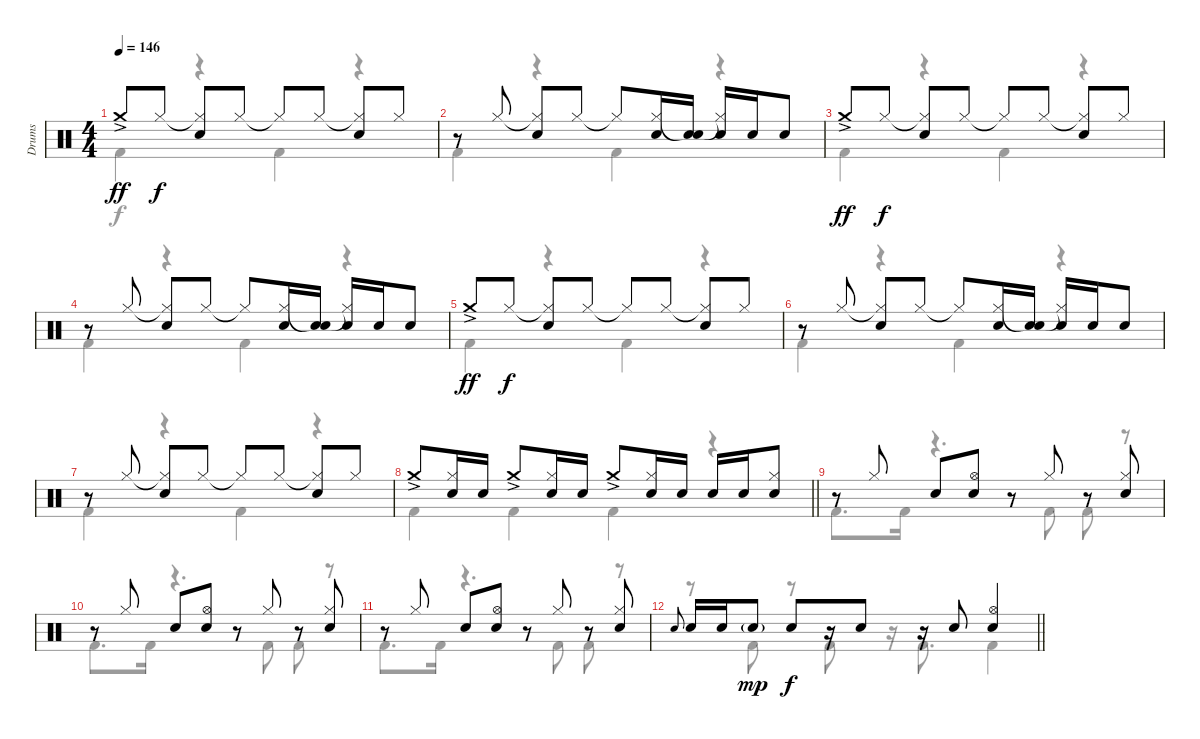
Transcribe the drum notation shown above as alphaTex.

\track ("Drums" "Drums") {instrument percussion}
\staff {score}
\articulation defaults
\voice
\ts (4 4)
\tempo 146
\clef neutral
\ks c "Crash medium (hit)"{ac}.8{dy ff} "Hi-Hat (closed)".8{dy f}
("Hi-Hat (closed)"{t} "Snare (hit) 2").8 "Hi-Hat (closed)".8 "Hi-Hat (closed)"{t}.8 "Hi-Hat (closed)".8 ("Hi-Hat (closed)"{t} "Snare (hit) 2").8 "Hi-Hat (closed)".8 |
r.8 "Hi-Hat (closed)".8 ("Hi-Hat (closed)"{t} "Snare (hit) 2").8 "Hi-Hat (closed)".8 "Hi-Hat (closed)"{t}.8 ("Hi-Hat (closed)" "Snare (hit) 2").16 ("Snare (hit)"{t} "Snare (hit) 2").16 ("Hi-Hat (closed)"{t} "Snare (hit) 2").16 "Snare (hit) 2".16 "Snare (hit) 2".8 |
"Crash medium (hit)"{ac}.8{dy ff} "Hi-Hat (closed)".8{dy f} ("Hi-Hat (closed)"{t} "Snare (hit) 2").8 "Hi-Hat (closed)".8 "Hi-Hat (closed)"{t}.8 "Hi-Hat (closed)".8 ("Hi-Hat (closed)"{t} "Snare (hit) 2").8 "Hi-Hat (closed)".8 |
r.8 "Hi-Hat (closed)".8 ("Hi-Hat (closed)"{t} "Snare (hit) 2").8 "Hi-Hat (closed)".8 "Hi-Hat (closed)"{t}.8 ("Hi-Hat (closed)" "Snare (hit) 2").16 ("Snare (hit)"{t} "Snare (hit) 2").16 ("Hi-Hat (closed)"{t} "Snare (hit) 2").16 "Snare (hit) 2".16 "Snare (hit) 2".8 |
"Crash medium (hit)"{ac}.8{dy ff} "Hi-Hat (closed)".8{dy f} ("Hi-Hat (closed)"{t} "Snare (hit) 2").8 "Hi-Hat (closed)".8 "Hi-Hat (closed)"{t}.8 "Hi-Hat (closed)".8 ("Hi-Hat (closed)"{t} "Snare (hit) 2").8 "Hi-Hat (closed)".8 |
r.8 "Hi-Hat (closed)".8 ("Hi-Hat (closed)"{t} "Snare (hit) 2").8 "Hi-Hat (closed)".8 "Hi-Hat (closed)"{t}.8 ("Hi-Hat (closed)" "Snare (hit) 2").16 ("Snare (hit)"{t} "Snare (hit) 2").16 ("Hi-Hat (closed)"{t} "Snare (hit) 2").16 "Snare (hit) 2".16 "Snare (hit) 2".8 |
r.8 "Hi-Hat (closed)".8 ("Hi-Hat (closed)"{t} "Snare (hit) 2").8 "Hi-Hat (closed)".8 "Hi-Hat (closed)"{t}.8 "Hi-Hat (closed)".8 ("Hi-Hat (closed)"{t} "Snare (hit) 2").8 "Hi-Hat (closed)".8 |
\barLineRight lightlight "Crash medium (hit)"{ac}.8
("Hi-Hat (closed)" "Snare (hit) 2").16 "Snare (hit) 2".16 "Crash medium (hit)"{ac}.8 ("Hi-Hat (closed)" "Snare (hit) 2").16 "Snare (hit) 2".16 "Crash medium (hit)"{ac}.8 ("Hi-Hat (closed)" "Snare (hit) 2").16 "Snare (hit) 2".16 "Snare (hit) 2".16 "Snare (hit) 2".16 ("Hi-Hat (closed)" "Snare (hit) 2").8 |
r.8 "Hi-Hat (closed)".8 "Snare (hit) 2".8 ("Hi-Hat (open)" "Electric Snare (hit)").8 r.8 "Hi-Hat (closed)".8 r.8 ("Hi-Hat (closed)" "Snare (hit) 2").8 |
r.8 "Hi-Hat (closed)".8 "Snare (hit) 2".8 ("Hi-Hat (open)" "Electric Snare (hit)").8 r.8 "Hi-Hat (closed)".8 r.8 ("Hi-Hat (closed)" "Snare (hit) 2").8 |
r.8 "Hi-Hat (closed)".8 "Snare (hit) 2".8 ("Hi-Hat (open)" "Electric Snare (hit)").8 r.8 "Hi-Hat (closed)".8 r.8 ("Hi-Hat (closed)" "Snare (hit) 2").8 |
\barLineRight lightlight "Snare (hit) 2".8{gr onbeat} "Snare (hit) 2".16 "Snare (hit) 2".16 "Snare (hit) 2"{g}.8{dy mp} "Snare (hit) 2".8{dy f}
r.16 "Snare (hit) 2".8 r.16 "Snare (hit) 2".8 ("Hi-Hat (open)" "Electric Snare (hit)").4
\voice
\clef neutral
\ottava regular
\simile none
\ks c "Kick (hit) 2".4{dy f}
r.4 "Kick (hit) 2".4 r.4 |
"Kick (hit) 2".4 r.4 "Kick (hit) 2".4 r.4 |
"Kick (hit) 2".4 r.4 "Kick (hit) 2".4 r.4 |
"Kick (hit) 2".4 r.4 "Kick (hit) 2".4 r.4 |
"Kick (hit) 2".4 r.4 "Kick (hit) 2".4 r.4 |
"Kick (hit) 2".4 r.4 "Kick (hit) 2".4 r.4 |
"Kick (hit) 2".4 r.4 "Kick (hit) 2".4 r.4 |
\barLineRight lightlight "Kick (hit) 2".4 "Kick (hit) 2".4 "Kick (hit) 2".4
r.4 |
"Kick (hit) 2".8{d} "Kick (hit) 2".16 r.4{d} "Kick (hit) 2".8 "Kick (hit) 2".8 r.8 |
"Kick (hit) 2".8{d} "Kick (hit) 2".16 r.4{d} "Kick (hit) 2".8 "Kick (hit) 2".8 r.8 |
"Kick (hit) 2".8{d} "Kick (hit) 2".16 r.4{d} "Kick (hit) 2".8 "Kick (hit) 2".8 r.8 |
\barLineRight lightlight
r.8 "Kick (hit) 2".8 r.8 "Kick (hit) 2".8 r.16 "Kick (hit) 2".8{d} "Kick (hit) 2".4
